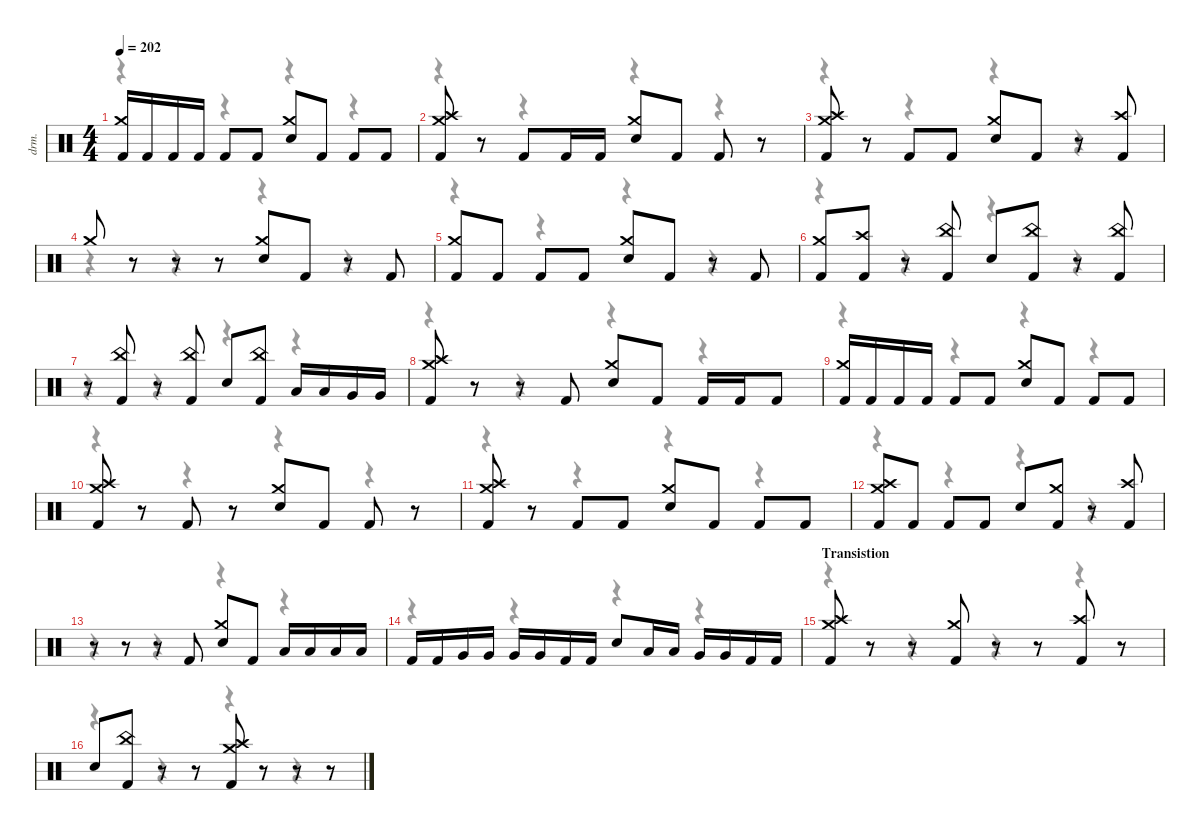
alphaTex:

\defaultSystemsLayout 4
\hideDynamics
\bracketExtendMode nobrackets
\track ("Alex Ballew" "drm.") {instrument percussion}
\staff {score}
\articulation defaults
\voice
\ts (4 4)
\tempo 202
\clef neutral
\ks c
("Crash medium (hit)" "Kick (hit) 2").16{dy f beam Up} "Kick (hit) 2".16{beam Up} "Kick (hit) 2".16{beam Up} "Kick (hit) 2".16{beam Up} "Kick (hit) 2".8{beam Up} "Kick (hit) 2".8{beam Up} ("Crash medium (hit)" "Snare (hit) 2").8{beam Up} "Kick (hit) 2".8{beam Up} "Kick (hit) 2".8{beam Up} "Kick (hit) 2".8{beam Up} |
("Crash medium (hit)" "Crash high (hit)" "Kick (hit) 2").8{beam Up} r.8{beam Up} "Kick (hit) 2".8{beam Up} "Kick (hit) 2".16{beam Up} "Kick (hit) 2".16{beam Up} ("Crash medium (hit)" "Snare (hit) 2").8{beam Up} "Kick (hit) 2".8{beam Up} "Kick (hit) 2".8{beam Up} r.8{beam Up} |
("Crash medium (hit)" "Crash high (hit)" "Kick (hit) 2").8{beam Up} r.8{beam Up} "Kick (hit) 2".8{beam Up} "Kick (hit) 2".8{beam Up} ("Crash medium (hit)" "Snare (hit) 2").8{beam Up} "Kick (hit) 2".8{beam Up} r.8{beam Up} ("Crash high (hit)" "Kick (hit) 2").8{beam Up} |
"Crash medium (hit)".8{beam Up} r.8{beam Up} r.8{beam Up} r.8{beam Up} ("Crash medium (hit)" "Snare (hit) 2").8{beam Up} "Kick (hit) 2".8{beam Up} r.8{beam Up} "Kick (hit) 2".8{beam Up} |
("Crash medium (hit)" "Kick (hit) 2").8{beam Up} "Kick (hit) 2".8{beam Up} "Kick (hit) 2".8{beam Up} "Kick (hit) 2".8{beam Up} ("Crash medium (hit)" "Snare (hit) 2").8{beam Up} "Kick (hit) 2".8{beam Up} r.8{beam Up} "Kick (hit) 2".8{beam Up} |
("Crash medium (hit)" "Kick (hit) 2").8{beam Up} ("Crash high (hit)" "Kick (hit) 2").8{beam Up} r.8{beam Up} ("China (hit)" "Kick (hit) 2").8{beam Up} "Snare (hit) 2".8{beam Up} ("China (hit)" "Kick (hit) 2").8{beam Up} r.8{beam Up} ("China (hit)" "Kick (hit) 2").8{beam Up} |
r.8{beam Up} ("China (hit)" "Kick (hit) 2").8{beam Up} r.8{beam Up} ("China (hit)" "Kick (hit) 2").8{beam Up} "Snare (hit) 2".8{beam Up} ("China (hit)" "Kick (hit) 2").8{beam Up} "Low Tom (hit)".16{beam Up} "Low Tom (hit)".16{beam Up} "Very Low Tom (hit)".16{beam Up} "Very Low Tom (hit)".16{beam Up} |
("Crash medium (hit)" "Crash high (hit)" "Kick (hit) 2").8{beam Up} r.8{beam Up} r.8{beam Up} "Kick (hit) 2".8{beam Up} ("Crash medium (hit)" "Snare (hit) 2").8{beam Up} "Kick (hit) 2".8{beam Up} "Kick (hit) 2".16{beam Up} "Kick (hit) 2".16{beam Up} "Kick (hit) 2".8{beam Up} |
("Crash medium (hit)" "Kick (hit) 2").16{beam Up} "Kick (hit) 2".16{beam Up} "Kick (hit) 2".16{beam Up} "Kick (hit) 2".16{beam Up} "Kick (hit) 2".8{beam Up} "Kick (hit) 2".8{beam Up} ("Crash medium (hit)" "Snare (hit) 2").8{beam Up} "Kick (hit) 2".8{beam Up} "Kick (hit) 2".8{beam Up} "Kick (hit) 2".8{beam Up} |
("Crash medium (hit)" "Crash high (hit)" "Kick (hit) 2").8{beam Up} r.8{beam Up} "Kick (hit) 2".8{beam Up} r.8{beam Up} ("Crash medium (hit)" "Snare (hit) 2").8{beam Up} "Kick (hit) 2".8{beam Up} "Kick (hit) 2".8{beam Up} r.8{beam Up} |
("Crash medium (hit)" "Crash high (hit)" "Kick (hit) 2").8{beam Up} r.8{beam Up} "Kick (hit) 2".8{beam Up} "Kick (hit) 2".8{beam Up} ("Crash medium (hit)" "Snare (hit) 2").8{beam Up} "Kick (hit) 2".8{beam Up} "Kick (hit) 2".8{beam Up} "Kick (hit) 2".8{beam Up} |
("Crash medium (hit)" "Crash high (hit)" "Kick (hit) 2").8{beam Up} "Kick (hit) 2".8{beam Up} "Kick (hit) 2".8{beam Up} "Kick (hit) 2".8{beam Up} "Snare (hit) 2".8{beam Up} ("Crash medium (hit)" "Kick (hit) 2").8{beam Up} r.8{beam Up} ("Crash high (hit)" "Kick (hit) 2").8{beam Up} |
r.8{beam Up} r.8{beam Up} r.8{beam Up} "Kick (hit) 2".8{beam Up} ("Crash medium (hit)" "Snare (hit) 2").8{beam Up} "Kick (hit) 2".8{beam Up} "Low Tom (hit)".16{beam Up} "Low Tom (hit)".16{beam Up} "Low Tom (hit)".16{beam Up} "Low Tom (hit)".16{beam Up} |
"Kick (hit) 2".16{beam Up} "Kick (hit) 2".16{beam Up} "Very Low Tom (hit)".16{beam Up} "Very Low Tom (hit)".16{beam Up} "Very Low Tom (hit)".16{beam Up} "Very Low Tom (hit)".16{beam Up} "Kick (hit) 2".16{beam Up} "Kick (hit) 2".16{beam Up} "Snare (hit) 2".8{beam Up} "Low Tom (hit)".16{beam Up} "Low Tom (hit)".16{beam Up} "Very Low Tom (hit)".16{beam Up} "Very Low Tom (hit)".16{beam Up} "Kick (hit) 2".16{beam Up} "Kick (hit) 2".16{beam Up} |
\section ("" "Transistion")
("Crash medium (hit)" "Crash high (hit)" "Kick (hit) 2").8{beam Up} r.8{beam Up} r.8{beam Up} ("Crash medium (hit)" "Kick (hit) 2").8{beam Up} r.8{beam Up} r.8{beam Up} ("Crash high (hit)" "Kick (hit) 2").8{beam Up} r.8{beam Up} |
"Snare (hit) 2".8{beam Up} ("China (hit)" "Kick (hit) 2").8{beam Up} r.8{beam Up} r.8{beam Up} ("Crash medium (hit)" "Crash high (hit)" "Kick (hit) 2").8{beam Up} r.8{beam Up} r.8{beam Up} r.8{beam Up}
\voice
\clef neutral
\ottava regular
\simile none
\ks c
r.4{dy mf beam Down} r.4{beam Down} r.4{beam Down} r.4{beam Down} |
r.4{beam Down} r.4{beam Down} r.4{beam Down} r.4{beam Down} |
r.4{beam Down} r.4{beam Down} r.4{beam Down} r.4{beam Down} |
r.4{beam Down} r.4{beam Down} r.4{beam Down} r.4{beam Down} |
r.4{beam Down} r.4{beam Down} r.4{beam Down} r.4{beam Down} |
r.4{beam Down} r.4{beam Down} r.4{beam Down} r.4{beam Down} |
r.4{beam Down} r.4{beam Down} r.4{beam Down} r.4{beam Down} |
r.4{beam Down} r.4{beam Down} r.4{beam Down} r.4{beam Down} |
r.4{beam Down} r.4{beam Down} r.4{beam Down} r.4{beam Down} |
r.4{beam Down} r.4{beam Down} r.4{beam Down} r.4{beam Down} |
r.4{beam Down} r.4{beam Down} r.4{beam Down} r.4{beam Down} |
r.4{beam Down} r.4{beam Down} r.4{beam Down} r.4{beam Down} |
r.4{beam Down} r.4{beam Down} r.4{beam Down} r.4{beam Down} |
r.4{beam Down} r.4{beam Down} r.4{beam Down} r.4{beam Down} |
r.4{beam Down} r.4{beam Down} r.4{beam Down} r.4{beam Down} |
r.4{beam Down} r.4{beam Down} r.4{beam Down} r.4{beam Down}
